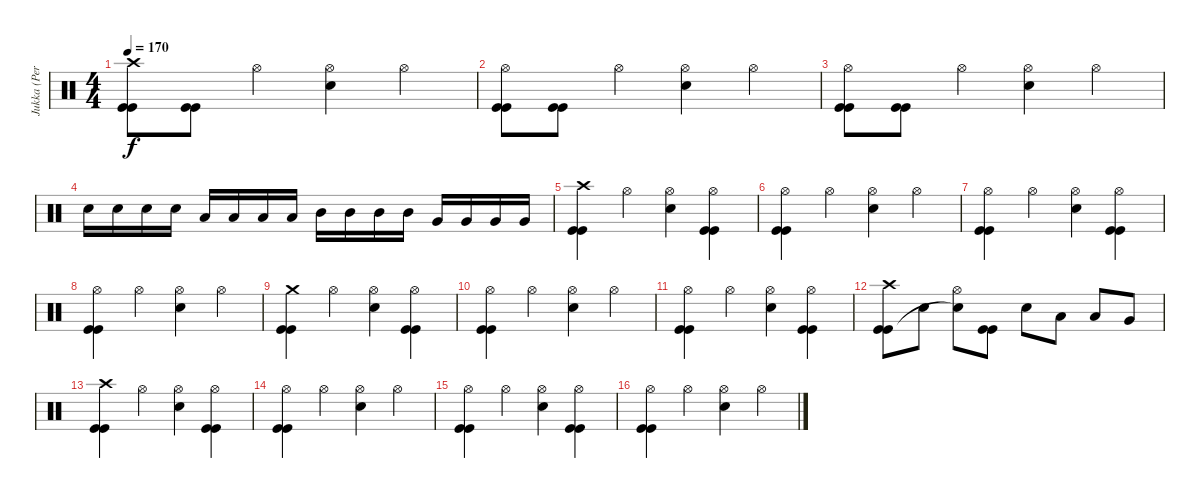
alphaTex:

\track ("Jukka (Percussion)" "Jukka (Per") {instrument percussion}
\staff {score}
\articulation defaults
\ts (4 4)
\tempo 170
\clef neutral
\ks c
("Crash high (hit)" "Kick (hit)" "Kick (hit)").8{dy f} ("Kick (hit)" "Kick (hit)").8 "Hi-Hat (open)".4 ("Hi-Hat (open)" "Snare (hit) 2").4 "Hi-Hat (open)".4 |
("Hi-Hat (open)" "Kick (hit)" "Kick (hit)").8 ("Kick (hit)" "Kick (hit)").8 "Hi-Hat (open)".4 ("Hi-Hat (open)" "Snare (hit) 2").4 "Hi-Hat (open)".4 |
("Hi-Hat (open)" "Kick (hit)" "Kick (hit)").8 ("Kick (hit)" "Kick (hit)").8 "Hi-Hat (open)".4 ("Hi-Hat (open)" "Snare (hit) 2").4 "Hi-Hat (open)".4 |
"Snare (hit) 2".16 "Snare (hit) 2".16 "Snare (hit) 2".16 "Snare (hit) 2".16 "Low Tom (hit)".16 "Low Tom (hit)".16 "Low Tom (hit)".16 "Low Tom (hit)".16 "Mid Tom (hit)".16 "Mid Tom (hit)".16 "Mid Tom (hit)".16 "Mid Tom (hit)".16 "Very Low Tom (hit)".16 "Very Low Tom (hit)".16 "Very Low Tom (hit)".16 "Very Low Tom (hit)".16 |
("Crash high (hit)" "Kick (hit)" "Kick (hit)").4 "Hi-Hat (open)".4 ("Hi-Hat (open)" "Snare (hit) 2").4 ("Hi-Hat (open)" "Kick (hit)" "Kick (hit)").4 |
("Hi-Hat (open)" "Kick (hit)" "Kick (hit)").4 "Hi-Hat (open)".4 ("Hi-Hat (open)" "Snare (hit) 2").4 "Hi-Hat (open)".4 |
("Hi-Hat (open)" "Kick (hit)" "Kick (hit)").4 "Hi-Hat (open)".4 ("Hi-Hat (open)" "Snare (hit) 2").4 ("Hi-Hat (open)" "Kick (hit)" "Kick (hit)").4 |
("Hi-Hat (open)" "Kick (hit)" "Kick (hit)").4 "Hi-Hat (open)".4 ("Hi-Hat (open)" "Snare (hit) 2").4 "Hi-Hat (open)".4 |
("Crash medium (hit)" "Kick (hit)" "Kick (hit)").4 "Hi-Hat (open)".4 ("Hi-Hat (open)" "Snare (hit) 2").4 ("Hi-Hat (open)" "Kick (hit)" "Kick (hit)").4 |
("Hi-Hat (open)" "Kick (hit)" "Kick (hit)").4 "Hi-Hat (open)".4 ("Hi-Hat (open)" "Snare (hit) 2").4 "Hi-Hat (open)".4 |
("Hi-Hat (open)" "Kick (hit)" "Kick (hit)").4 "Hi-Hat (open)".4 ("Hi-Hat (open)" "Snare (hit) 2").4 ("Hi-Hat (open)" "Kick (hit)" "Kick (hit)").4 |
("Crash high (hit)" "Kick (hit)" "Kick (hit)").8 "Snare (hit) 2".8 ("Hi-Hat (open)" "Snare (hit) 2"{t}).8 ("Kick (hit)" "Kick (hit)").8 "Snare (hit) 2".8 "Low Tom (hit)".8 "Low Tom (hit)".8 "Very Low Tom (hit)".8 |
("Crash high (hit)" "Kick (hit)" "Kick (hit)").4 "Hi-Hat (open)".4 ("Hi-Hat (open)" "Snare (hit) 2").4 ("Hi-Hat (open)" "Kick (hit)" "Kick (hit)").4 |
("Hi-Hat (open)" "Kick (hit)" "Kick (hit)").4 "Hi-Hat (open)".4 ("Hi-Hat (open)" "Snare (hit) 2").4 "Hi-Hat (open)".4 |
("Hi-Hat (open)" "Kick (hit)" "Kick (hit)").4 "Hi-Hat (open)".4 ("Hi-Hat (open)" "Snare (hit) 2").4 ("Hi-Hat (open)" "Kick (hit)" "Kick (hit)").4 |
("Hi-Hat (open)" "Kick (hit)" "Kick (hit)").4 "Hi-Hat (open)".4 ("Hi-Hat (open)" "Snare (hit) 2").4 "Hi-Hat (open)".4
